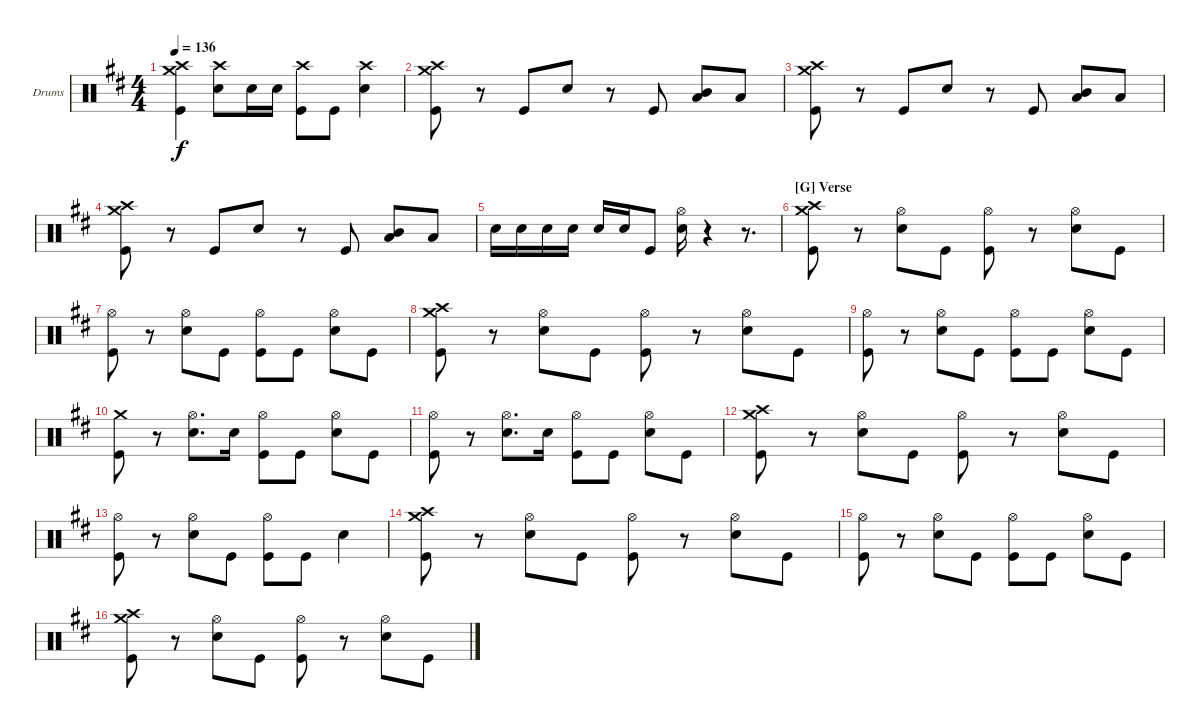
\defaultSystemsLayout 4
\bracketExtendMode groupsimilarinstruments
\firstSystemTrackNameOrientation horizontal
\otherSystemsTrackNameOrientation horizontal
\track ("Drumkit" "Drums") {instrument percussion}
\staff {score}
\articulation defaults
\ts (4 4)
\tempo 136
\clef neutral
\scale
1.05044
\ks d
("Crash high (hit)" "Crash medium (hit)" "Kick (hit)").4{dy f} ("Crash high (hit)" "Snare (hit) 2").8 "Snare (hit) 2".16 "Snare (hit) 2".16 ("Crash high (hit)" "Kick (hit)").8 "Kick (hit)".8 ("Crash high (hit)" "Snare (hit) 2").4 |
\scale
0.949559 ("Crash high (hit)" "Crash medium (hit)" "Kick (hit)").8 r.8 "Kick (hit)".8 "Snare (hit) 2".8 r.8 "Kick (hit)".8 ("Mid Tom (hit)" "Low Tom (hit)").8 "Low Tom (hit)".8 |
\scale
1.05044 ("Crash high (hit)" "Crash medium (hit)" "Kick (hit)").8 r.8 "Kick (hit)".8 "Snare (hit) 2".8 r.8 "Kick (hit)".8 ("Mid Tom (hit)" "Low Tom (hit)").8 "Low Tom (hit)".8 |
\scale
0.949559 ("Crash high (hit)" "Crash medium (hit)" "Kick (hit)").8 r.8 "Kick (hit)".8 "Snare (hit) 2".8 r.8 "Kick (hit)".8 ("Mid Tom (hit)" "Low Tom (hit)").8 "Low Tom (hit)".8 |
\scale
1.05044 "Snare (hit) 2".16 "Snare (hit) 2".16 "Snare (hit) 2".16 "Snare (hit) 2".16 "Snare (hit) 2".16 "Snare (hit) 2".16 "Kick (hit)".8 ("Hi-Hat (open)" "Snare (hit) 2").16 r.4 r.8{d} |
\section ("G" "Verse")
\scale
0.949559 ("Crash high (hit)" "Crash medium (hit)" "Kick (hit)").8 r.8 ("Hi-Hat (open)" "Snare (hit) 2").8 "Kick (hit)".8 ("Hi-Hat (open)" "Kick (hit)").8 r.8 ("Hi-Hat (open)" "Snare (hit) 2").8 "Kick (hit)".8 |
\scale
1.05044 ("Hi-Hat (open)" "Kick (hit)").8 r.8 ("Hi-Hat (open)" "Snare (hit) 2").8 "Kick (hit)".8 ("Hi-Hat (open)" "Kick (hit)").8 "Kick (hit)".8 ("Hi-Hat (open)" "Snare (hit) 2").8 "Kick (hit)".8 |
\scale
0.949559 ("Crash high (hit)" "Crash medium (hit)" "Kick (hit)").8 r.8 ("Hi-Hat (open)" "Snare (hit) 2").8 "Kick (hit)".8 ("Hi-Hat (open)" "Kick (hit)").8 r.8 ("Hi-Hat (open)" "Snare (hit) 2").8 "Kick (hit)".8 |
\scale
1.05044 ("Hi-Hat (open)" "Kick (hit)").8 r.8 ("Hi-Hat (open)" "Snare (hit) 2").8 "Kick (hit)".8 ("Hi-Hat (open)" "Kick (hit)").8 "Kick (hit)".8 ("Hi-Hat (open)" "Snare (hit) 2").8 "Kick (hit)".8 |
\scale
0.949559 ("Crash medium (hit)" "Kick (hit)").8 r.8 ("Hi-Hat (open)" "Snare (hit) 2").8{d} "Snare (hit) 2".16 ("Hi-Hat (open)" "Kick (hit)").8 "Kick (hit)".8 ("Hi-Hat (open)" "Snare (hit) 2").8 "Kick (hit)".8 |
\scale
1.05044 ("Hi-Hat (open)" "Kick (hit)").8 r.8 ("Hi-Hat (open)" "Snare (hit) 2").8{d} "Snare (hit) 2".16 ("Hi-Hat (open)" "Kick (hit)").8 "Kick (hit)".8 ("Hi-Hat (open)" "Snare (hit) 2").8 "Kick (hit)".8 |
\scale
0.949559 ("Crash high (hit)" "Crash medium (hit)" "Kick (hit)").8 r.8 ("Hi-Hat (open)" "Snare (hit) 2").8 "Kick (hit)".8 ("Hi-Hat (open)" "Kick (hit)").8 r.8 ("Hi-Hat (open)" "Snare (hit) 2").8 "Kick (hit)".8 |
\scale
1.05044 ("Hi-Hat (open)" "Kick (hit)").8 r.8 ("Hi-Hat (open)" "Snare (hit) 2").8 "Kick (hit)".8 ("Hi-Hat (open)" "Kick (hit)").8 "Kick (hit)".8 "Snare (hit) 2".4 |
\scale
0.949559 ("Crash high (hit)" "Crash medium (hit)" "Kick (hit)").8 r.8 ("Hi-Hat (open)" "Snare (hit) 2").8 "Kick (hit)".8 ("Hi-Hat (open)" "Kick (hit)").8 r.8 ("Hi-Hat (open)" "Snare (hit) 2").8 "Kick (hit)".8 |
\scale
1.05044 ("Hi-Hat (open)" "Kick (hit)").8 r.8 ("Hi-Hat (open)" "Snare (hit) 2").8 "Kick (hit)".8 ("Hi-Hat (open)" "Kick (hit)").8 "Kick (hit)".8 ("Hi-Hat (open)" "Snare (hit) 2").8 "Kick (hit)".8 |
\scale
0.949559 ("Crash high (hit)" "Crash medium (hit)" "Kick (hit)").8 r.8 ("Hi-Hat (open)" "Snare (hit) 2").8 "Kick (hit)".8 ("Hi-Hat (open)" "Kick (hit)").8 r.8 ("Hi-Hat (open)" "Snare (hit) 2").8 "Kick (hit)".8
